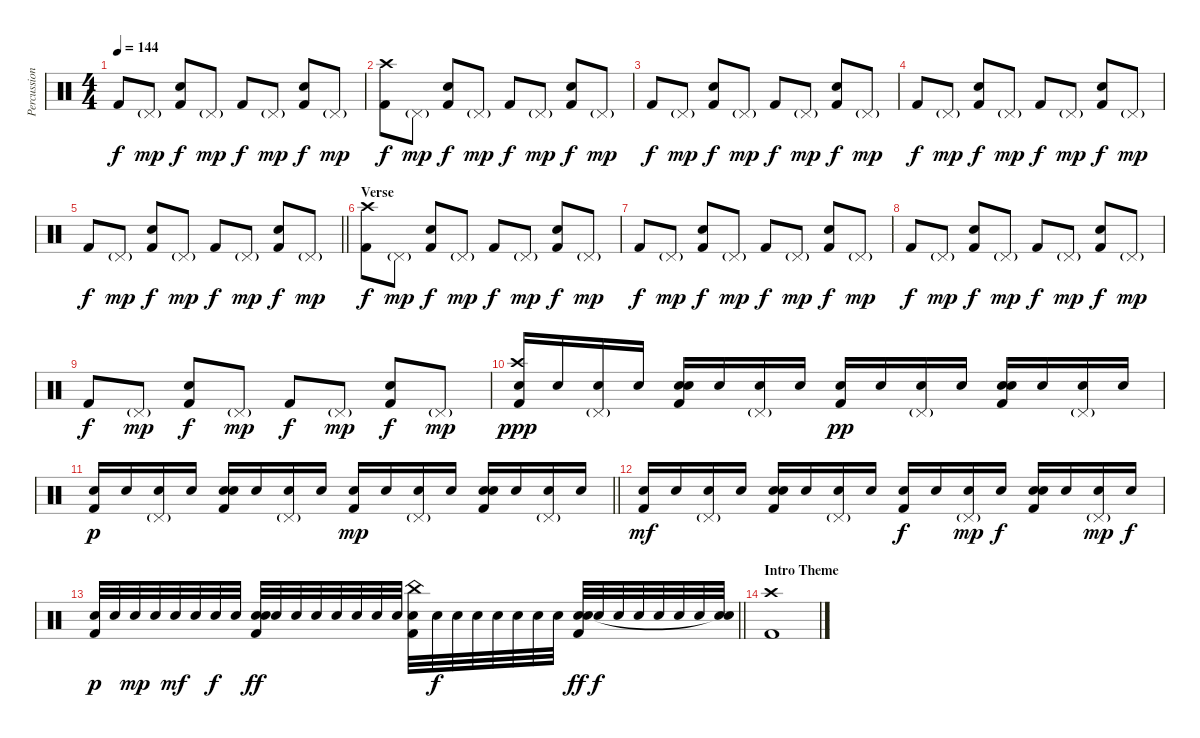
\track ("Percussion" "Percussion") {instrument percussion}
\staff {score}
\articulation defaults
\ts (4 4)
\tempo 144
\clef neutral
\ks c "Kick (hit) 2".8{dy f} "Pedal Hi-Hat (hit)"{g}.8{dy mp}
("Electric Snare (hit)" "Kick (hit) 2").8{dy f} "Pedal Hi-Hat (hit)"{g}.8{dy mp} "Kick (hit) 2".8{dy f} "Pedal Hi-Hat (hit)"{g}.8{dy mp} ("Electric Snare (hit)" "Kick (hit) 2").8{dy f} "Pedal Hi-Hat (hit)"{g}.8{dy mp} |
("Crash high (hit)" "Kick (hit) 2").8{dy f} "Pedal Hi-Hat (hit)"{g}.8{dy mp} ("Electric Snare (hit)" "Kick (hit) 2").8{dy f} "Pedal Hi-Hat (hit)"{g}.8{dy mp} "Kick (hit) 2".8{dy f} "Pedal Hi-Hat (hit)"{g}.8{dy mp} ("Electric Snare (hit)" "Kick (hit) 2").8{dy f} "Pedal Hi-Hat (hit)"{g}.8{dy mp} |
"Kick (hit) 2".8{dy f} "Pedal Hi-Hat (hit)"{g}.8{dy mp} ("Electric Snare (hit)" "Kick (hit) 2").8{dy f} "Pedal Hi-Hat (hit)"{g}.8{dy mp} "Kick (hit) 2".8{dy f} "Pedal Hi-Hat (hit)"{g}.8{dy mp} ("Electric Snare (hit)" "Kick (hit) 2").8{dy f} "Pedal Hi-Hat (hit)"{g}.8{dy mp} |
"Kick (hit) 2".8{dy f} "Pedal Hi-Hat (hit)"{g}.8{dy mp} ("Electric Snare (hit)" "Kick (hit) 2").8{dy f} "Pedal Hi-Hat (hit)"{g}.8{dy mp} "Kick (hit) 2".8{dy f} "Pedal Hi-Hat (hit)"{g}.8{dy mp} ("Electric Snare (hit)" "Kick (hit) 2").8{dy f} "Pedal Hi-Hat (hit)"{g}.8{dy mp} |
\barLineRight lightlight "Kick (hit) 2".8{dy f} "Pedal Hi-Hat (hit)"{g}.8{dy mp}
("Electric Snare (hit)" "Kick (hit) 2").8{dy f} "Pedal Hi-Hat (hit)"{g}.8{dy mp} "Kick (hit) 2".8{dy f} "Pedal Hi-Hat (hit)"{g}.8{dy mp} ("Electric Snare (hit)" "Kick (hit) 2").8{dy f} "Pedal Hi-Hat (hit)"{g}.8{dy mp} |
\section ("" "Verse")
("Crash high (hit)" "Kick (hit) 2").8{dy f} "Pedal Hi-Hat (hit)"{g}.8{dy mp} ("Electric Snare (hit)" "Kick (hit) 2").8{dy f} "Pedal Hi-Hat (hit)"{g}.8{dy mp} "Kick (hit) 2".8{dy f} "Pedal Hi-Hat (hit)"{g}.8{dy mp} ("Electric Snare (hit)" "Kick (hit) 2").8{dy f} "Pedal Hi-Hat (hit)"{g}.8{dy mp} |
"Kick (hit) 2".8{dy f} "Pedal Hi-Hat (hit)"{g}.8{dy mp} ("Electric Snare (hit)" "Kick (hit) 2").8{dy f} "Pedal Hi-Hat (hit)"{g}.8{dy mp} "Kick (hit) 2".8{dy f} "Pedal Hi-Hat (hit)"{g}.8{dy mp} ("Electric Snare (hit)" "Kick (hit) 2").8{dy f} "Pedal Hi-Hat (hit)"{g}.8{dy mp} |
"Kick (hit) 2".8{dy f} "Pedal Hi-Hat (hit)"{g}.8{dy mp} ("Electric Snare (hit)" "Kick (hit) 2").8{dy f} "Pedal Hi-Hat (hit)"{g}.8{dy mp} "Kick (hit) 2".8{dy f} "Pedal Hi-Hat (hit)"{g}.8{dy mp} ("Electric Snare (hit)" "Kick (hit) 2").8{dy f} "Pedal Hi-Hat (hit)"{g}.8{dy mp} |
"Kick (hit) 2".8{dy f} "Pedal Hi-Hat (hit)"{g}.8{dy mp} ("Electric Snare (hit)" "Kick (hit) 2").8{dy f} "Pedal Hi-Hat (hit)"{g}.8{dy mp} "Kick (hit) 2".8{dy f} "Pedal Hi-Hat (hit)"{g}.8{dy mp} ("Electric Snare (hit)" "Kick (hit) 2").8{dy f} "Pedal Hi-Hat (hit)"{g}.8{dy mp} |
("Crash high (hit)" "Snare (hit) 2" "Kick (hit) 2").16{dy ppp} "Snare (hit) 2".16 ("Pedal Hi-Hat (hit)"{g} "Snare (hit) 2").16 "Snare (hit) 2".16 ("Electric Snare (hit)" "Snare (hit) 2" "Kick (hit) 2").16 "Snare (hit) 2".16 ("Pedal Hi-Hat (hit)"{g} "Snare (hit) 2").16 "Snare (hit) 2".16 ("Snare (hit) 2" "Kick (hit) 2").16{dy pp} "Snare (hit) 2".16 ("Pedal Hi-Hat (hit)"{g} "Snare (hit) 2").16 "Snare (hit) 2".16 ("Electric Snare (hit)" "Snare (hit) 2" "Kick (hit) 2").16 "Snare (hit) 2".16 ("Pedal Hi-Hat (hit)"{g} "Snare (hit) 2").16 "Snare (hit) 2".16 |
\barLineRight lightlight
("Snare (hit) 2" "Kick (hit) 2").16{dy p} "Snare (hit) 2".16 ("Pedal Hi-Hat (hit)"{g} "Snare (hit) 2").16 "Snare (hit) 2".16 ("Electric Snare (hit)" "Snare (hit) 2" "Kick (hit) 2").16 "Snare (hit) 2".16 ("Pedal Hi-Hat (hit)"{g} "Snare (hit) 2").16 "Snare (hit) 2".16 ("Snare (hit) 2" "Kick (hit) 2").16{dy mp} "Snare (hit) 2".16 ("Pedal Hi-Hat (hit)"{g} "Snare (hit) 2").16 "Snare (hit) 2".16 ("Electric Snare (hit)" "Snare (hit) 2" "Kick (hit) 2").16 "Snare (hit) 2".16 ("Pedal Hi-Hat (hit)"{g} "Snare (hit) 2").16 "Snare (hit) 2".16 |
("Snare (hit) 2" "Kick (hit) 2").16{dy mf} "Snare (hit) 2".16 ("Pedal Hi-Hat (hit)"{g} "Snare (hit) 2").16 "Snare (hit) 2".16 ("Electric Snare (hit)" "Snare (hit) 2" "Kick (hit) 2").16 "Snare (hit) 2".16 ("Pedal Hi-Hat (hit)"{g} "Snare (hit) 2").16 "Snare (hit) 2".16 ("Snare (hit) 2" "Kick (hit) 2").16{dy f} "Snare (hit) 2".16 ("Pedal Hi-Hat (hit)"{g} "Snare (hit) 2").16{dy mp} "Snare (hit) 2".16{dy f} ("Electric Snare (hit)" "Snare (hit) 2" "Kick (hit) 2").16 "Snare (hit) 2".16 ("Pedal Hi-Hat (hit)"{g} "Snare (hit) 2").16{dy mp} "Snare (hit) 2".16{dy f} |
\barLineRight lightlight
("Snare (hit) 2" "Kick (hit) 2").32{dy p} "Snare (hit) 2".32 "Snare (hit) 2".32{dy mp} "Snare (hit) 2".32 "Snare (hit) 2".32{dy mf} "Snare (hit) 2".32 "Snare (hit) 2".32{dy f} "Snare (hit) 2".32 ("Snare (hit) 2" "Electric Snare (hit)" "Kick (hit) 2").32{dy ff} "Snare (hit) 2".32 "Snare (hit) 2".32 "Snare (hit) 2".32 "Snare (hit) 2".32 "Snare (hit) 2".32 "Snare (hit) 2".32 "Snare (hit) 2".32 ("Snare (hit) 2" "China (hit)" "Kick (hit) 2").32 "Snare (hit) 2".32{dy f} "Snare (hit) 2".32 "Snare (hit) 2".32 "Snare (hit) 2".32 "Snare (hit) 2".32 "Snare (hit) 2".32 "Snare (hit) 2".32 ("Snare (hit) 2" "Electric Snare (hit)" "Kick (hit) 2").32{dy ff} "Snare (hit) 2".32{dy f} "Snare (hit) 2".32 "Snare (hit) 2".32 "Snare (hit) 2".32 "Snare (hit) 2".32 "Snare (hit) 2".32 ("Snare (hit) 2" "Snare (hit)"{t}).32 |
\section ("" "Intro Theme")
("Crash high (hit)" "Kick (hit) 2").1
